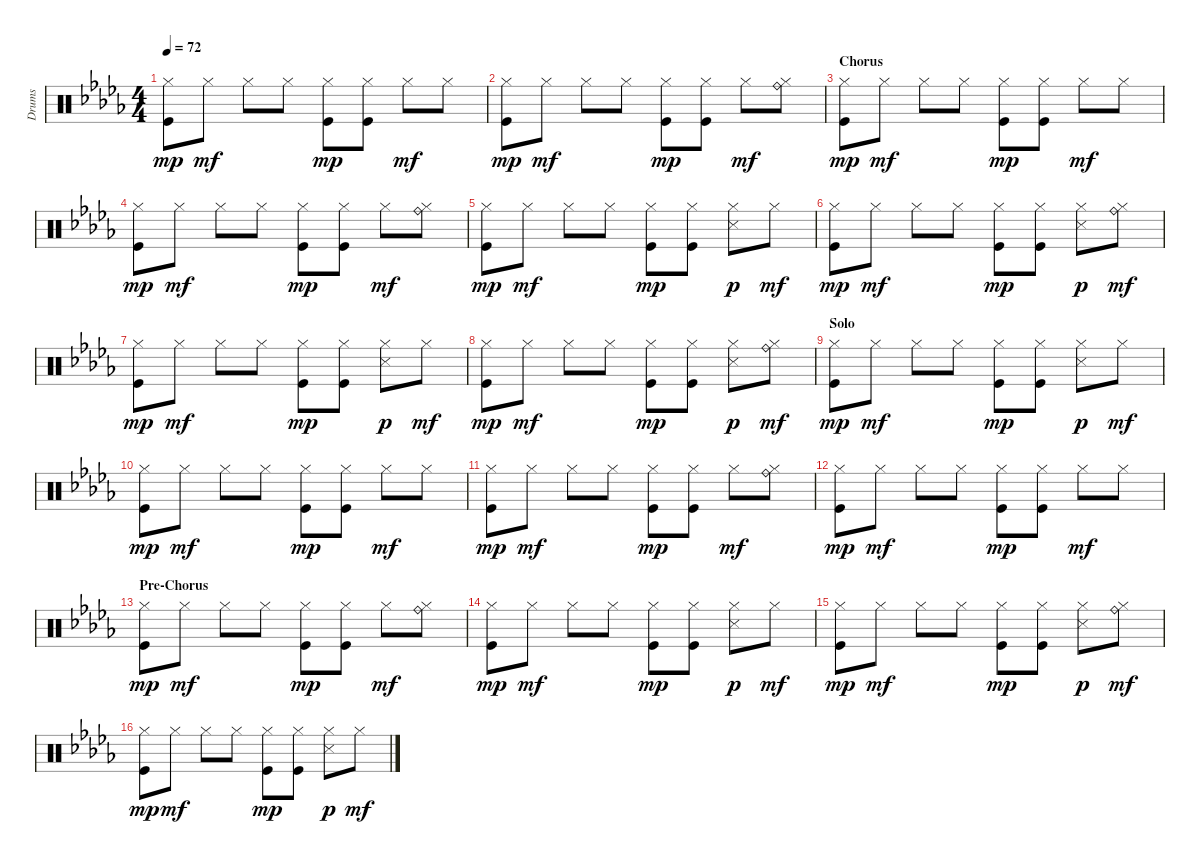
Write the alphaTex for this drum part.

\track ("Drums" "Drums") {instrument percussion}
\staff {score}
\articulation defaults
\ts (4 4)
\tempo 72
\clef neutral
\ks db
("Hi-Hat (closed)" "Kick (hit)").8{dy mp} "Hi-Hat (closed)".8{dy mf} "Hi-Hat (closed)".8 "Hi-Hat (closed)".8 ("Hi-Hat (closed)" "Kick (hit)").8{dy mp} ("Hi-Hat (closed)" "Kick (hit)").8 "Hi-Hat (closed)".8{dy mf} "Hi-Hat (closed)".8 |
("Hi-Hat (closed)" "Kick (hit)").8{dy mp} "Hi-Hat (closed)".8{dy mf} "Hi-Hat (closed)".8 "Hi-Hat (closed)".8 ("Hi-Hat (closed)" "Kick (hit)").8{dy mp} ("Hi-Hat (closed)" "Kick (hit)").8 "Hi-Hat (closed)".8{dy mf} ("Ride (bell)" "Hi-Hat (closed)").8 |
\section ("" "Chorus")
("Hi-Hat (closed)" "Kick (hit)").8{dy mp} "Hi-Hat (closed)".8{dy mf} "Hi-Hat (closed)".8 "Hi-Hat (closed)".8 ("Hi-Hat (closed)" "Kick (hit)").8{dy mp} ("Hi-Hat (closed)" "Kick (hit)").8 "Hi-Hat (closed)".8{dy mf} "Hi-Hat (closed)".8 |
("Hi-Hat (closed)" "Kick (hit)").8{dy mp} "Hi-Hat (closed)".8{dy mf} "Hi-Hat (closed)".8 "Hi-Hat (closed)".8 ("Hi-Hat (closed)" "Kick (hit)").8{dy mp} ("Hi-Hat (closed)" "Kick (hit)").8 "Hi-Hat (closed)".8{dy mf} ("Ride (bell)" "Hi-Hat (closed)").8 |
("Hi-Hat (closed)" "Kick (hit)").8{dy mp} "Hi-Hat (closed)".8{dy mf} "Hi-Hat (closed)".8 "Hi-Hat (closed)".8 ("Hi-Hat (closed)" "Kick (hit)").8{dy mp} ("Hi-Hat (closed)" "Kick (hit)").8 ("Hi-Hat (closed)" "Snare (side stick) 3").8{dy p} "Hi-Hat (closed)".8{dy mf} |
("Hi-Hat (closed)" "Kick (hit)").8{dy mp} "Hi-Hat (closed)".8{dy mf} "Hi-Hat (closed)".8 "Hi-Hat (closed)".8 ("Hi-Hat (closed)" "Kick (hit)").8{dy mp} ("Hi-Hat (closed)" "Kick (hit)").8 ("Hi-Hat (closed)" "Snare (side stick) 3").8{dy p} ("Ride (bell)" "Hi-Hat (closed)").8{dy mf} |
("Hi-Hat (closed)" "Kick (hit)").8{dy mp} "Hi-Hat (closed)".8{dy mf} "Hi-Hat (closed)".8 "Hi-Hat (closed)".8 ("Hi-Hat (closed)" "Kick (hit)").8{dy mp} ("Hi-Hat (closed)" "Kick (hit)").8 ("Hi-Hat (closed)" "Snare (side stick) 3").8{dy p} "Hi-Hat (closed)".8{dy mf} |
("Hi-Hat (closed)" "Kick (hit)").8{dy mp} "Hi-Hat (closed)".8{dy mf} "Hi-Hat (closed)".8 "Hi-Hat (closed)".8 ("Hi-Hat (closed)" "Kick (hit)").8{dy mp} ("Hi-Hat (closed)" "Kick (hit)").8 ("Hi-Hat (closed)" "Snare (side stick) 3").8{dy p} ("Ride (bell)" "Hi-Hat (closed)").8{dy mf} |
\section ("" "Solo")
("Hi-Hat (closed)" "Kick (hit)").8{dy mp} "Hi-Hat (closed)".8{dy mf} "Hi-Hat (closed)".8 "Hi-Hat (closed)".8 ("Hi-Hat (closed)" "Kick (hit)").8{dy mp} ("Hi-Hat (closed)" "Kick (hit)").8 ("Hi-Hat (closed)" "Snare (side stick) 3").8{dy p} "Hi-Hat (closed)".8{dy mf} |
("Hi-Hat (closed)" "Kick (hit)").8{dy mp} "Hi-Hat (closed)".8{dy mf} "Hi-Hat (closed)".8 "Hi-Hat (closed)".8 ("Hi-Hat (closed)" "Kick (hit)").8{dy mp} ("Hi-Hat (closed)" "Kick (hit)").8 "Hi-Hat (closed)".8{dy mf} "Hi-Hat (closed)".8 |
("Hi-Hat (closed)" "Kick (hit)").8{dy mp} "Hi-Hat (closed)".8{dy mf} "Hi-Hat (closed)".8 "Hi-Hat (closed)".8 ("Hi-Hat (closed)" "Kick (hit)").8{dy mp} ("Hi-Hat (closed)" "Kick (hit)").8 "Hi-Hat (closed)".8{dy mf} ("Ride (bell)" "Hi-Hat (closed)").8 |
("Hi-Hat (closed)" "Kick (hit)").8{dy mp} "Hi-Hat (closed)".8{dy mf} "Hi-Hat (closed)".8 "Hi-Hat (closed)".8 ("Hi-Hat (closed)" "Kick (hit)").8{dy mp} ("Hi-Hat (closed)" "Kick (hit)").8 "Hi-Hat (closed)".8{dy mf} "Hi-Hat (closed)".8 |
\section ("" "Pre-Chorus")
("Hi-Hat (closed)" "Kick (hit)").8{dy mp} "Hi-Hat (closed)".8{dy mf} "Hi-Hat (closed)".8 "Hi-Hat (closed)".8 ("Hi-Hat (closed)" "Kick (hit)").8{dy mp} ("Hi-Hat (closed)" "Kick (hit)").8 "Hi-Hat (closed)".8{dy mf} ("Ride (bell)" "Hi-Hat (closed)").8 |
("Hi-Hat (closed)" "Kick (hit)").8{dy mp} "Hi-Hat (closed)".8{dy mf} "Hi-Hat (closed)".8 "Hi-Hat (closed)".8 ("Hi-Hat (closed)" "Kick (hit)").8{dy mp} ("Hi-Hat (closed)" "Kick (hit)").8 ("Hi-Hat (closed)" "Snare (side stick) 3").8{dy p} "Hi-Hat (closed)".8{dy mf} |
("Hi-Hat (closed)" "Kick (hit)").8{dy mp} "Hi-Hat (closed)".8{dy mf} "Hi-Hat (closed)".8 "Hi-Hat (closed)".8 ("Hi-Hat (closed)" "Kick (hit)").8{dy mp} ("Hi-Hat (closed)" "Kick (hit)").8 ("Hi-Hat (closed)" "Snare (side stick) 3").8{dy p} ("Ride (bell)" "Hi-Hat (closed)").8{dy mf} |
("Hi-Hat (closed)" "Kick (hit)").8{dy mp} "Hi-Hat (closed)".8{dy mf} "Hi-Hat (closed)".8 "Hi-Hat (closed)".8 ("Hi-Hat (closed)" "Kick (hit)").8{dy mp} ("Hi-Hat (closed)" "Kick (hit)").8 ("Hi-Hat (closed)" "Snare (side stick) 3").8{dy p} "Hi-Hat (closed)".8{dy mf}
